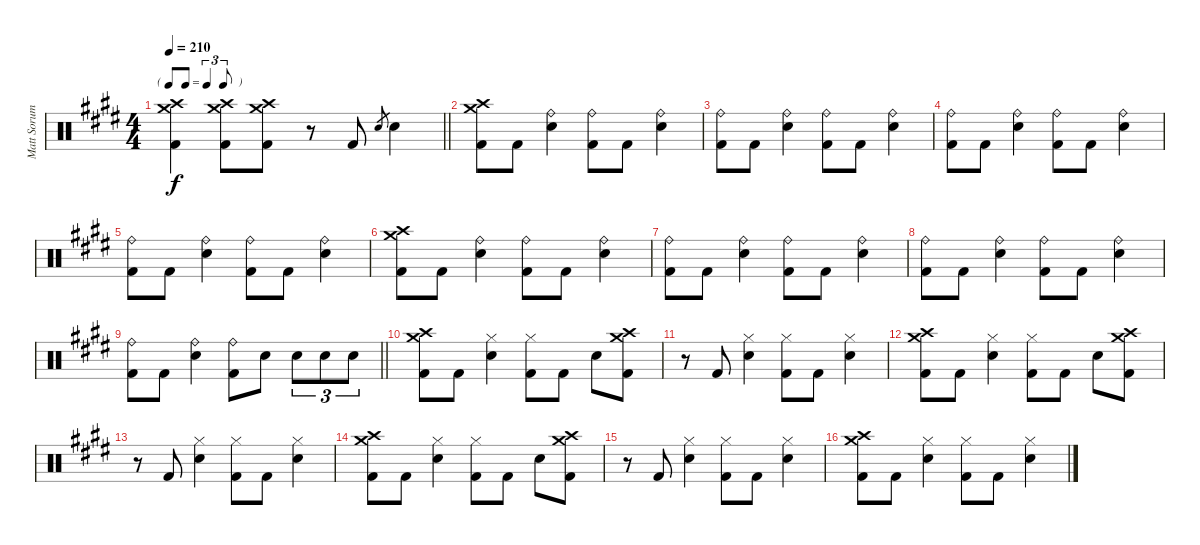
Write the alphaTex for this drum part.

\track ("Matt Sorum - Drums" "Matt Sorum") {instrument percussion}
\staff {score}
\articulation defaults
\ts (4 4)
\tf triplet8th
\tempo 210
\clef neutral
\barLineRight lightlight
\ks e
("Crash medium (hit)" "Crash high (hit)" "Kick (hit) 2").4{dy f} ("Crash high (hit)" "Crash medium (hit)" "Kick (hit) 2").8 ("Crash medium (hit)" "Crash high (hit)" "Kick (hit) 2").8 r.8 "Kick (hit) 2".8 "Snare (hit) 2".8{gr} "Snare (hit) 2".4 |
("Crash medium (hit)" "Crash high (hit)" "Kick (hit) 2").8 "Kick (hit) 2".8 ("Ride (bell)" "Snare (hit) 2").4 ("Ride (bell)" "Kick (hit) 2").8 "Kick (hit) 2".8 ("Ride (bell)" "Snare (hit) 2").4 |
("Ride (bell)" "Kick (hit) 2").8 "Kick (hit) 2".8 ("Ride (bell)" "Snare (hit) 2").4 ("Ride (bell)" "Kick (hit) 2").8 "Kick (hit) 2".8 ("Ride (bell)" "Snare (hit) 2").4 |
("Ride (bell)" "Kick (hit) 2").8 "Kick (hit) 2".8 ("Ride (bell)" "Snare (hit) 2").4 ("Ride (bell)" "Kick (hit) 2").8 "Kick (hit) 2".8 ("Ride (bell)" "Snare (hit) 2").4 |
("Ride (bell)" "Kick (hit) 2").8 "Kick (hit) 2".8 ("Ride (bell)" "Snare (hit) 2").4 ("Ride (bell)" "Kick (hit) 2").8 "Kick (hit) 2".8 ("Ride (bell)" "Snare (hit) 2").4 |
("Crash medium (hit)" "Crash high (hit)" "Kick (hit) 2").8 "Kick (hit) 2".8 ("Ride (bell)" "Snare (hit) 2").4 ("Ride (bell)" "Kick (hit) 2").8 "Kick (hit) 2".8 ("Ride (bell)" "Snare (hit) 2").4 |
("Ride (bell)" "Kick (hit) 2").8 "Kick (hit) 2".8 ("Ride (bell)" "Snare (hit) 2").4 ("Ride (bell)" "Kick (hit) 2").8 "Kick (hit) 2".8 ("Ride (bell)" "Snare (hit) 2").4 |
("Ride (bell)" "Kick (hit) 2").8 "Kick (hit) 2".8 ("Ride (bell)" "Snare (hit) 2").4 ("Ride (bell)" "Kick (hit) 2").8 "Kick (hit) 2".8 ("Ride (bell)" "Snare (hit) 2").4 |
\barLineRight lightlight
("Ride (bell)" "Kick (hit) 2").8 "Kick (hit) 2".8 ("Ride (bell)" "Snare (hit) 2").4 ("Ride (bell)" "Kick (hit) 2").8 "Snare (hit) 2".8 "Snare (hit) 2".8{tu (3 2)} "Snare (hit) 2".8{tu (3 2)} "Snare (hit) 2".8{tu (3 2)} |
("Crash medium (hit)" "Crash high (hit)" "Kick (hit) 2").8 "Kick (hit) 2".8 ("Hi-Hat (closed)" "Snare (hit) 2").4 ("Hi-Hat (closed)" "Kick (hit) 2").8 "Kick (hit) 2".8 "Snare (hit) 2".8 ("Crash medium (hit)" "Crash high (hit)" "Kick (hit) 2").8 |
r.8 "Kick (hit) 2".8 ("Hi-Hat (closed)" "Snare (hit) 2").4 ("Hi-Hat (closed)" "Kick (hit) 2").8 "Kick (hit) 2".8 ("Hi-Hat (closed)" "Snare (hit) 2").4 |
("Crash medium (hit)" "Crash high (hit)" "Kick (hit) 2").8 "Kick (hit) 2".8 ("Hi-Hat (closed)" "Snare (hit) 2").4 ("Hi-Hat (closed)" "Kick (hit) 2").8 "Kick (hit) 2".8 "Snare (hit) 2".8 ("Crash medium (hit)" "Crash high (hit)" "Kick (hit) 2").8 |
r.8 "Kick (hit) 2".8 ("Hi-Hat (closed)" "Snare (hit) 2").4 ("Hi-Hat (closed)" "Kick (hit) 2").8 "Kick (hit) 2".8 ("Hi-Hat (closed)" "Snare (hit) 2").4 |
("Crash medium (hit)" "Crash high (hit)" "Kick (hit) 2").8 "Kick (hit) 2".8 ("Hi-Hat (closed)" "Snare (hit) 2").4 ("Hi-Hat (closed)" "Kick (hit) 2").8 "Kick (hit) 2".8 "Snare (hit) 2".8 ("Crash medium (hit)" "Crash high (hit)" "Kick (hit) 2").8 |
r.8 "Kick (hit) 2".8 ("Hi-Hat (closed)" "Snare (hit) 2").4 ("Hi-Hat (closed)" "Kick (hit) 2").8 "Kick (hit) 2".8 ("Hi-Hat (closed)" "Snare (hit) 2").4 |
("Crash medium (hit)" "Crash high (hit)" "Kick (hit) 2").8 "Kick (hit) 2".8 ("Hi-Hat (closed)" "Snare (hit) 2").4 ("Hi-Hat (closed)" "Kick (hit) 2").8 "Kick (hit) 2".8 ("Hi-Hat (closed)" "Snare (hit) 2").4
